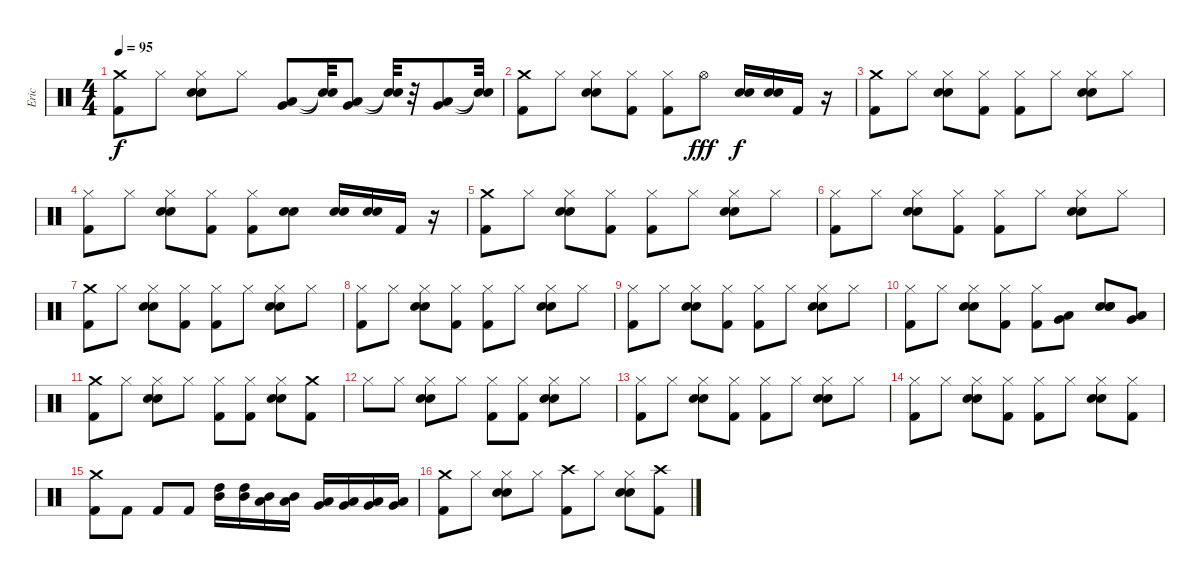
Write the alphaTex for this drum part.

\track ("Eric" "Eric") {instrument percussion}
\staff {score}
\articulation defaults
\ts (4 4)
\tempo 95
\clef neutral
\ks c
("Crash medium (hit)" "Kick (hit) 2").8{dy f} "Hi-Hat (closed)".8 ("Hi-Hat (closed)" "Electric Snare (hit)" "Snare (hit) 2").8 "Hi-Hat (closed)".8 ("Very Low Tom (hit)" "Low Floor Tom (hit)").8 ("Snare (hit)"{t} "Snare (hit)"{t}).32 ("Very Low Tom (hit)" "Low Floor Tom (hit)").8 ("Snare (hit)"{t} "Snare (hit)"{t}).32 r.32 ("Very Low Tom (hit)" "Low Floor Tom (hit)").8 ("Snare (hit)"{t} "Snare (hit)"{t}).32 |
("Crash medium (hit)" "Kick (hit) 2").8 "Hi-Hat (closed)".8 ("Hi-Hat (closed)" "Electric Snare (hit)" "Snare (hit) 2").8 ("Hi-Hat (closed)" "Kick (hit) 2").8 ("Hi-Hat (closed)" "Kick (hit) 2").8 "Hi-Hat (open)".8{dy fff} ("Electric Snare (hit)" "Snare (hit) 2").16{dy f} ("Electric Snare (hit)" "Snare (hit) 2").16 "Kick (hit) 2".16 r.16 |
("Crash medium (hit)" "Kick (hit) 2").8 "Hi-Hat (closed)".8 ("Hi-Hat (closed)" "Electric Snare (hit)" "Snare (hit) 2").8 ("Hi-Hat (closed)" "Kick (hit) 2").8 ("Hi-Hat (closed)" "Kick (hit) 2").8 "Hi-Hat (closed)".8 ("Hi-Hat (closed)" "Electric Snare (hit)" "Snare (hit) 2").8 "Hi-Hat (closed)".8 |
("Hi-Hat (closed)" "Kick (hit) 2").8 "Hi-Hat (closed)".8 ("Hi-Hat (closed)" "Electric Snare (hit)" "Snare (hit) 2").8 ("Hi-Hat (closed)" "Kick (hit) 2").8 ("Hi-Hat (closed)" "Kick (hit) 2").8 ("Snare (hit) 2" "Electric Snare (hit)").8 ("Electric Snare (hit)" "Snare (hit) 2").16 ("Electric Snare (hit)" "Snare (hit) 2").16 "Kick (hit) 2".16 r.16 |
("Crash medium (hit)" "Kick (hit) 2").8 "Hi-Hat (closed)".8 ("Hi-Hat (closed)" "Electric Snare (hit)" "Snare (hit) 2").8 ("Hi-Hat (closed)" "Kick (hit) 2").8 ("Hi-Hat (closed)" "Kick (hit) 2").8 "Hi-Hat (closed)".8 ("Hi-Hat (closed)" "Electric Snare (hit)" "Snare (hit) 2").8 "Hi-Hat (closed)".8 |
("Hi-Hat (closed)" "Kick (hit) 2").8 "Hi-Hat (closed)".8 ("Hi-Hat (closed)" "Electric Snare (hit)" "Snare (hit) 2").8 ("Hi-Hat (closed)" "Kick (hit) 2").8 ("Hi-Hat (closed)" "Kick (hit) 2").8 "Hi-Hat (closed)".8 ("Hi-Hat (closed)" "Electric Snare (hit)" "Snare (hit) 2").8 "Hi-Hat (closed)".8 |
("Crash medium (hit)" "Kick (hit) 2").8 "Hi-Hat (closed)".8 ("Hi-Hat (closed)" "Electric Snare (hit)" "Snare (hit) 2").8 ("Hi-Hat (closed)" "Kick (hit) 2").8 ("Hi-Hat (closed)" "Kick (hit) 2").8 "Hi-Hat (closed)".8 ("Hi-Hat (closed)" "Electric Snare (hit)" "Snare (hit) 2").8 "Hi-Hat (closed)".8 |
("Hi-Hat (closed)" "Kick (hit) 2").8 "Hi-Hat (closed)".8 ("Hi-Hat (closed)" "Electric Snare (hit)" "Snare (hit) 2").8 ("Hi-Hat (closed)" "Kick (hit) 2").8 ("Hi-Hat (closed)" "Kick (hit) 2").8 "Hi-Hat (closed)".8 ("Hi-Hat (closed)" "Electric Snare (hit)" "Snare (hit) 2").8 "Hi-Hat (closed)".8 |
("Hi-Hat (closed)" "Kick (hit) 2").8 "Hi-Hat (closed)".8 ("Hi-Hat (closed)" "Electric Snare (hit)" "Snare (hit) 2").8 ("Hi-Hat (closed)" "Kick (hit) 2").8 ("Hi-Hat (closed)" "Kick (hit) 2").8 "Hi-Hat (closed)".8 ("Hi-Hat (closed)" "Electric Snare (hit)" "Snare (hit) 2").8 "Hi-Hat (closed)".8 |
("Hi-Hat (closed)" "Kick (hit) 2").8 "Hi-Hat (closed)".8 ("Hi-Hat (closed)" "Electric Snare (hit)" "Snare (hit) 2").8 ("Hi-Hat (closed)" "Kick (hit) 2").8 ("Hi-Hat (closed)" "Kick (hit) 2").8 ("Very Low Tom (hit)" "Low Tom (hit)").8 ("Snare (hit) 2" "Electric Snare (hit)" "Snare (hit) 2").8 ("Very Low Tom (hit)" "Low Floor Tom (hit)").8 |
("Crash medium (hit)" "Kick (hit) 2").8 "Hi-Hat (closed)".8 ("Hi-Hat (closed)" "Electric Snare (hit)" "Snare (hit) 2").8 "Hi-Hat (closed)".8 ("Hi-Hat (closed)" "Kick (hit) 2").8 ("Kick (hit) 2" "Hi-Hat (closed)").8 ("Hi-Hat (closed)" "Electric Snare (hit)" "Snare (hit) 2").8 ("Kick (hit) 2" "Crash medium (hit)").8 |
"Hi-Hat (closed)".8 "Hi-Hat (closed)".8 ("Hi-Hat (closed)" "Electric Snare (hit)" "Snare (hit) 2").8 "Hi-Hat (closed)".8 ("Hi-Hat (closed)" "Kick (hit) 2").8 ("Kick (hit) 2" "Hi-Hat (closed)").8 ("Hi-Hat (closed)" "Electric Snare (hit)" "Snare (hit) 2").8 "Hi-Hat (closed)".8 |
("Hi-Hat (closed)" "Kick (hit) 2").8 "Hi-Hat (closed)".8 ("Hi-Hat (closed)" "Electric Snare (hit)" "Snare (hit) 2").8 ("Hi-Hat (closed)" "Kick (hit) 2").8 ("Hi-Hat (closed)" "Kick (hit) 2").8 "Hi-Hat (closed)".8 ("Hi-Hat (closed)" "Electric Snare (hit)" "Snare (hit) 2").8 "Hi-Hat (closed)".8 |
("Hi-Hat (closed)" "Kick (hit) 2").8 "Hi-Hat (closed)".8 ("Hi-Hat (closed)" "Electric Snare (hit)" "Snare (hit) 2").8 ("Hi-Hat (closed)" "Kick (hit) 2").8 ("Hi-Hat (closed)" "Kick (hit) 2").8 "Hi-Hat (closed)".8 ("Hi-Hat (closed)" "Electric Snare (hit)" "Snare (hit) 2").8 ("Kick (hit) 2" "Hi-Hat (closed)").8 |
("Crash medium (hit)" "Kick (hit) 2").8 "Kick (hit) 2".8 "Kick (hit) 2".8 "Kick (hit) 2".8 ("Mid Tom (hit)" "High Tom (hit)").16 ("Mid Tom (hit)" "High Tom (hit)").16 ("Low Tom (hit)" "Mid Tom (hit)").16 ("Low Tom (hit)" "Mid Tom (hit)").16 ("Low Tom (hit)" "Very Low Tom (hit)").16 ("Low Tom (hit)" "Very Low Tom (hit)").16 ("Very Low Tom (hit)" "Low Floor Tom (hit)").16 ("Very Low Tom (hit)" "Low Floor Tom (hit)").16 |
("Crash medium (hit)" "Kick (hit) 2").8 "Hi-Hat (closed)".8 ("Hi-Hat (closed)" "Electric Snare (hit)" "Snare (hit) 2").8 "Hi-Hat (closed)".8 ("Crash high (hit)" "Kick (hit) 2").8 "Hi-Hat (closed)".8 ("Hi-Hat (closed)" "Electric Snare (hit)" "Snare (hit) 2").8 ("Kick (hit) 2" "Crash high (hit)").8
